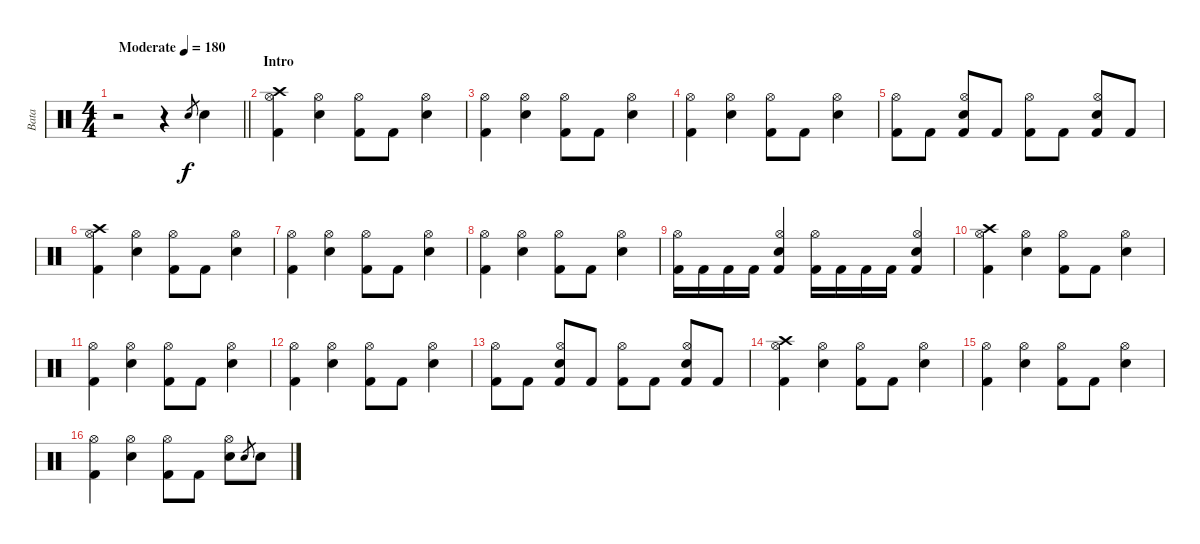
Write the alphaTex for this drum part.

\track ("Bata" "Bata") {instrument percussion}
\staff {score}
\articulation defaults
\ts (4 4)
\tempo (180 "Moderate")
\clef neutral
\barLineRight lightlight
\ks c
r.2{dy f} r.4 "Snare (hit) 2".8{gr} "Snare (hit) 2".4 |
\section ("" "Intro")
("Hi-Hat (open)" "Crash high (hit)" "Kick (hit) 2").4 ("Hi-Hat (open)" "Snare (hit) 2").4 ("Hi-Hat (open)" "Kick (hit) 2").8 "Kick (hit) 2".8 ("Hi-Hat (open)" "Snare (hit) 2").4 |
("Hi-Hat (open)" "Kick (hit) 2").4 ("Hi-Hat (open)" "Snare (hit) 2").4 ("Hi-Hat (open)" "Kick (hit) 2").8 "Kick (hit) 2".8 ("Hi-Hat (open)" "Snare (hit) 2").4 |
("Hi-Hat (open)" "Kick (hit) 2").4 ("Hi-Hat (open)" "Snare (hit) 2").4 ("Hi-Hat (open)" "Kick (hit) 2").8 "Kick (hit) 2".8 ("Hi-Hat (open)" "Snare (hit) 2").4 |
("Hi-Hat (open)" "Kick (hit) 2").8 "Kick (hit) 2".8 ("Hi-Hat (open)" "Snare (hit) 2" "Kick (hit) 2").8 "Kick (hit) 2".8 ("Hi-Hat (open)" "Kick (hit) 2").8 "Kick (hit) 2".8 ("Hi-Hat (open)" "Snare (hit) 2" "Kick (hit) 2").8 "Kick (hit) 2".8 |
("Hi-Hat (open)" "Crash high (hit)" "Kick (hit) 2").4 ("Hi-Hat (open)" "Snare (hit) 2").4 ("Hi-Hat (open)" "Kick (hit) 2").8 "Kick (hit) 2".8 ("Hi-Hat (open)" "Snare (hit) 2").4 |
("Hi-Hat (open)" "Kick (hit) 2").4 ("Hi-Hat (open)" "Snare (hit) 2").4 ("Hi-Hat (open)" "Kick (hit) 2").8 "Kick (hit) 2".8 ("Hi-Hat (open)" "Snare (hit) 2").4 |
("Hi-Hat (open)" "Kick (hit) 2").4 ("Hi-Hat (open)" "Snare (hit) 2").4 ("Hi-Hat (open)" "Kick (hit) 2").8 "Kick (hit) 2".8 ("Hi-Hat (open)" "Snare (hit) 2").4 |
("Hi-Hat (open)" "Kick (hit) 2").16 "Kick (hit) 2".16 "Kick (hit) 2".16 "Kick (hit) 2".16 ("Hi-Hat (open)" "Snare (hit) 2" "Kick (hit) 2").4 ("Hi-Hat (open)" "Kick (hit) 2").16 "Kick (hit) 2".16 "Kick (hit) 2".16 "Kick (hit) 2".16 ("Hi-Hat (open)" "Snare (hit) 2" "Kick (hit) 2").4 |
("Hi-Hat (open)" "Crash high (hit)" "Kick (hit) 2").4 ("Hi-Hat (open)" "Snare (hit) 2").4 ("Hi-Hat (open)" "Kick (hit) 2").8 "Kick (hit) 2".8 ("Hi-Hat (open)" "Snare (hit) 2").4 |
("Hi-Hat (open)" "Kick (hit) 2").4 ("Hi-Hat (open)" "Snare (hit) 2").4 ("Hi-Hat (open)" "Kick (hit) 2").8 "Kick (hit) 2".8 ("Hi-Hat (open)" "Snare (hit) 2").4 |
("Hi-Hat (open)" "Kick (hit) 2").4 ("Hi-Hat (open)" "Snare (hit) 2").4 ("Hi-Hat (open)" "Kick (hit) 2").8 "Kick (hit) 2".8 ("Hi-Hat (open)" "Snare (hit) 2").4 |
("Hi-Hat (open)" "Kick (hit) 2").8 "Kick (hit) 2".8 ("Hi-Hat (open)" "Snare (hit) 2" "Kick (hit) 2").8 "Kick (hit) 2".8 ("Hi-Hat (open)" "Kick (hit) 2").8 "Kick (hit) 2".8 ("Hi-Hat (open)" "Snare (hit) 2" "Kick (hit) 2").8 "Kick (hit) 2".8 |
("Hi-Hat (open)" "Crash high (hit)" "Kick (hit) 2").4 ("Hi-Hat (open)" "Snare (hit) 2").4 ("Hi-Hat (open)" "Kick (hit) 2").8 "Kick (hit) 2".8 ("Hi-Hat (open)" "Snare (hit) 2").4 |
("Hi-Hat (open)" "Kick (hit) 2").4 ("Hi-Hat (open)" "Snare (hit) 2").4 ("Hi-Hat (open)" "Kick (hit) 2").8 "Kick (hit) 2".8 ("Hi-Hat (open)" "Snare (hit) 2").4 |
("Hi-Hat (open)" "Kick (hit) 2").4 ("Hi-Hat (open)" "Snare (hit) 2").4 ("Hi-Hat (open)" "Kick (hit) 2").8 "Kick (hit) 2".8 ("Hi-Hat (open)" "Snare (hit) 2").8 "Snare (hit) 2".8{gr} "Snare (hit) 2".8
